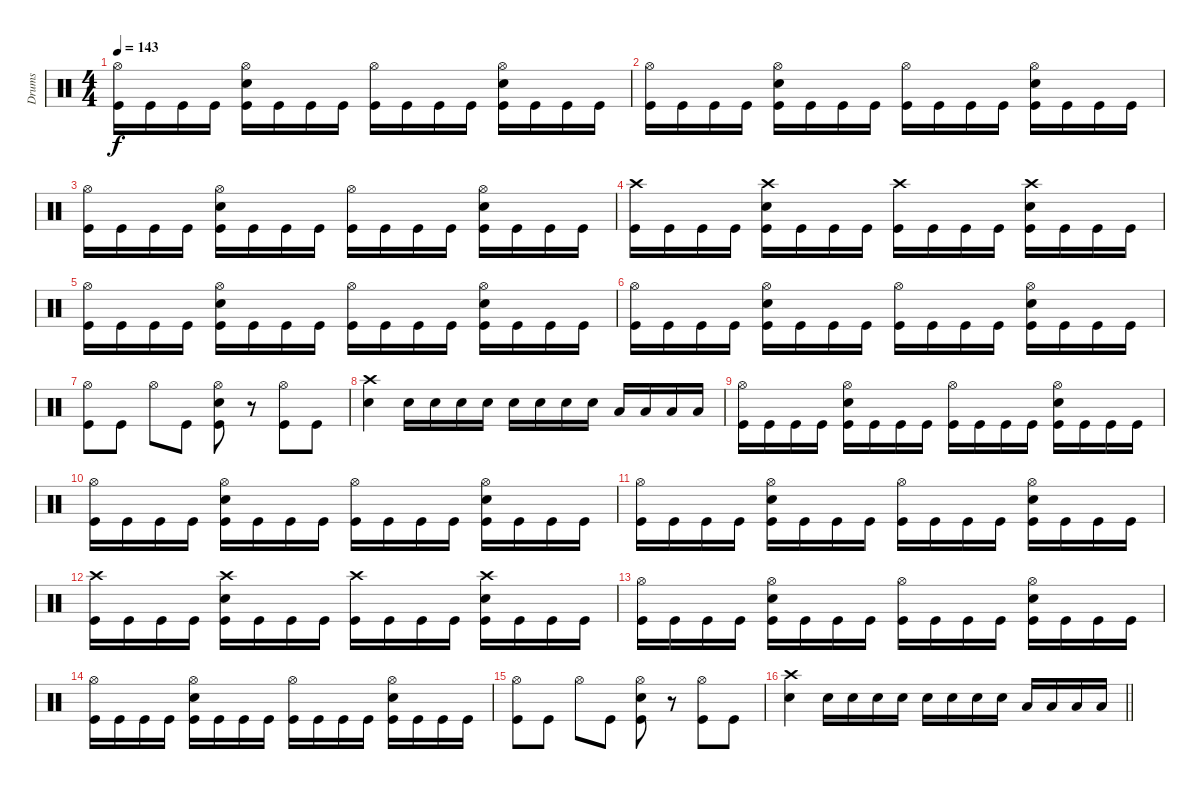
\track ("Drums" "Drums") {instrument percussion}
\staff {score}
\articulation defaults
\ts (4 4)
\tempo 143
\clef neutral
\ks c
("Hi-Hat (open)" "Kick (hit)").16{dy f} "Kick (hit)".16 "Kick (hit)".16 "Kick (hit)".16 ("Hi-Hat (open)" "Snare (hit) 2" "Kick (hit)").16 "Kick (hit)".16 "Kick (hit)".16 "Kick (hit)".16 ("Hi-Hat (open)" "Kick (hit)").16 "Kick (hit)".16 "Kick (hit)".16 "Kick (hit)".16 ("Hi-Hat (open)" "Snare (hit) 2" "Kick (hit)").16 "Kick (hit)".16 "Kick (hit)".16 "Kick (hit)".16 |
("Hi-Hat (open)" "Kick (hit)").16 "Kick (hit)".16 "Kick (hit)".16 "Kick (hit)".16 ("Hi-Hat (open)" "Snare (hit) 2" "Kick (hit)").16 "Kick (hit)".16 "Kick (hit)".16 "Kick (hit)".16 ("Hi-Hat (open)" "Kick (hit)").16 "Kick (hit)".16 "Kick (hit)".16 "Kick (hit)".16 ("Hi-Hat (open)" "Snare (hit) 2" "Kick (hit)").16 "Kick (hit)".16 "Kick (hit)".16 "Kick (hit)".16 |
("Hi-Hat (open)" "Kick (hit)").16 "Kick (hit)".16 "Kick (hit)".16 "Kick (hit)".16 ("Hi-Hat (open)" "Snare (hit) 2" "Kick (hit)").16 "Kick (hit)".16 "Kick (hit)".16 "Kick (hit)".16 ("Hi-Hat (open)" "Kick (hit)").16 "Kick (hit)".16 "Kick (hit)".16 "Kick (hit)".16 ("Hi-Hat (open)" "Snare (hit) 2" "Kick (hit)").16 "Kick (hit)".16 "Kick (hit)".16 "Kick (hit)".16 |
("Crash high (hit)" "Kick (hit)").16 "Kick (hit)".16 "Kick (hit)".16 "Kick (hit)".16 ("Crash high (hit)" "Snare (hit) 2" "Kick (hit)").16 "Kick (hit)".16 "Kick (hit)".16 "Kick (hit)".16 ("Crash high (hit)" "Kick (hit)").16 "Kick (hit)".16 "Kick (hit)".16 "Kick (hit)".16 ("Crash high (hit)" "Snare (hit) 2" "Kick (hit)").16 "Kick (hit)".16 "Kick (hit)".16 "Kick (hit)".16 |
("Hi-Hat (open)" "Kick (hit)").16 "Kick (hit)".16 "Kick (hit)".16 "Kick (hit)".16 ("Hi-Hat (open)" "Snare (hit) 2" "Kick (hit)").16 "Kick (hit)".16 "Kick (hit)".16 "Kick (hit)".16 ("Hi-Hat (open)" "Kick (hit)").16 "Kick (hit)".16 "Kick (hit)".16 "Kick (hit)".16 ("Hi-Hat (open)" "Snare (hit) 2" "Kick (hit)").16 "Kick (hit)".16 "Kick (hit)".16 "Kick (hit)".16 |
("Hi-Hat (open)" "Kick (hit)").16 "Kick (hit)".16 "Kick (hit)".16 "Kick (hit)".16 ("Hi-Hat (open)" "Snare (hit) 2" "Kick (hit)").16 "Kick (hit)".16 "Kick (hit)".16 "Kick (hit)".16 ("Hi-Hat (open)" "Kick (hit)").16 "Kick (hit)".16 "Kick (hit)".16 "Kick (hit)".16 ("Hi-Hat (open)" "Snare (hit) 2" "Kick (hit)").16 "Kick (hit)".16 "Kick (hit)".16 "Kick (hit)".16 |
("Hi-Hat (open)" "Kick (hit)").8 "Kick (hit)".8 "Hi-Hat (open)".8 "Kick (hit)".8 ("Hi-Hat (open)" "Snare (hit) 2" "Kick (hit)").8 r.8 ("Hi-Hat (open)" "Kick (hit)").8 "Kick (hit)".8 |
("Crash high (hit)" "Snare (hit) 2").4 "Snare (hit) 2".16 "Snare (hit) 2".16 "Snare (hit) 2".16 "Snare (hit) 2".16 "Snare (hit) 2".16 "Snare (hit) 2".16 "Snare (hit) 2".16 "Snare (hit) 2".16 "Low Tom (hit)".16 "Low Tom (hit)".16 "Low Tom (hit)".16 "Low Tom (hit)".16 |
("Hi-Hat (open)" "Kick (hit)").16 "Kick (hit)".16 "Kick (hit)".16 "Kick (hit)".16 ("Hi-Hat (open)" "Snare (hit) 2" "Kick (hit)").16 "Kick (hit)".16 "Kick (hit)".16 "Kick (hit)".16 ("Hi-Hat (open)" "Kick (hit)").16 "Kick (hit)".16 "Kick (hit)".16 "Kick (hit)".16 ("Hi-Hat (open)" "Snare (hit) 2" "Kick (hit)").16 "Kick (hit)".16 "Kick (hit)".16 "Kick (hit)".16 |
("Hi-Hat (open)" "Kick (hit)").16 "Kick (hit)".16 "Kick (hit)".16 "Kick (hit)".16 ("Hi-Hat (open)" "Snare (hit) 2" "Kick (hit)").16 "Kick (hit)".16 "Kick (hit)".16 "Kick (hit)".16 ("Hi-Hat (open)" "Kick (hit)").16 "Kick (hit)".16 "Kick (hit)".16 "Kick (hit)".16 ("Hi-Hat (open)" "Snare (hit) 2" "Kick (hit)").16 "Kick (hit)".16 "Kick (hit)".16 "Kick (hit)".16 |
("Hi-Hat (open)" "Kick (hit)").16 "Kick (hit)".16 "Kick (hit)".16 "Kick (hit)".16 ("Hi-Hat (open)" "Snare (hit) 2" "Kick (hit)").16 "Kick (hit)".16 "Kick (hit)".16 "Kick (hit)".16 ("Hi-Hat (open)" "Kick (hit)").16 "Kick (hit)".16 "Kick (hit)".16 "Kick (hit)".16 ("Hi-Hat (open)" "Snare (hit) 2" "Kick (hit)").16 "Kick (hit)".16 "Kick (hit)".16 "Kick (hit)".16 |
("Crash high (hit)" "Kick (hit)").16 "Kick (hit)".16 "Kick (hit)".16 "Kick (hit)".16 ("Crash high (hit)" "Snare (hit) 2" "Kick (hit)").16 "Kick (hit)".16 "Kick (hit)".16 "Kick (hit)".16 ("Crash high (hit)" "Kick (hit)").16 "Kick (hit)".16 "Kick (hit)".16 "Kick (hit)".16 ("Crash high (hit)" "Snare (hit) 2" "Kick (hit)").16 "Kick (hit)".16 "Kick (hit)".16 "Kick (hit)".16 |
("Hi-Hat (open)" "Kick (hit)").16 "Kick (hit)".16 "Kick (hit)".16 "Kick (hit)".16 ("Hi-Hat (open)" "Snare (hit) 2" "Kick (hit)").16 "Kick (hit)".16 "Kick (hit)".16 "Kick (hit)".16 ("Hi-Hat (open)" "Kick (hit)").16 "Kick (hit)".16 "Kick (hit)".16 "Kick (hit)".16 ("Hi-Hat (open)" "Snare (hit) 2" "Kick (hit)").16 "Kick (hit)".16 "Kick (hit)".16 "Kick (hit)".16 |
("Hi-Hat (open)" "Kick (hit)").16 "Kick (hit)".16 "Kick (hit)".16 "Kick (hit)".16 ("Hi-Hat (open)" "Snare (hit) 2" "Kick (hit)").16 "Kick (hit)".16 "Kick (hit)".16 "Kick (hit)".16 ("Hi-Hat (open)" "Kick (hit)").16 "Kick (hit)".16 "Kick (hit)".16 "Kick (hit)".16 ("Hi-Hat (open)" "Snare (hit) 2" "Kick (hit)").16 "Kick (hit)".16 "Kick (hit)".16 "Kick (hit)".16 |
("Hi-Hat (open)" "Kick (hit)").8 "Kick (hit)".8 "Hi-Hat (open)".8 "Kick (hit)".8 ("Hi-Hat (open)" "Snare (hit) 2" "Kick (hit)").8 r.8 ("Hi-Hat (open)" "Kick (hit)").8 "Kick (hit)".8 |
\barLineRight lightlight
("Crash high (hit)" "Snare (hit) 2").4 "Snare (hit) 2".16 "Snare (hit) 2".16 "Snare (hit) 2".16 "Snare (hit) 2".16 "Snare (hit) 2".16 "Snare (hit) 2".16 "Snare (hit) 2".16 "Snare (hit) 2".16 "Low Tom (hit)".16 "Low Tom (hit)".16 "Low Tom (hit)".16 "Low Tom (hit)".16
